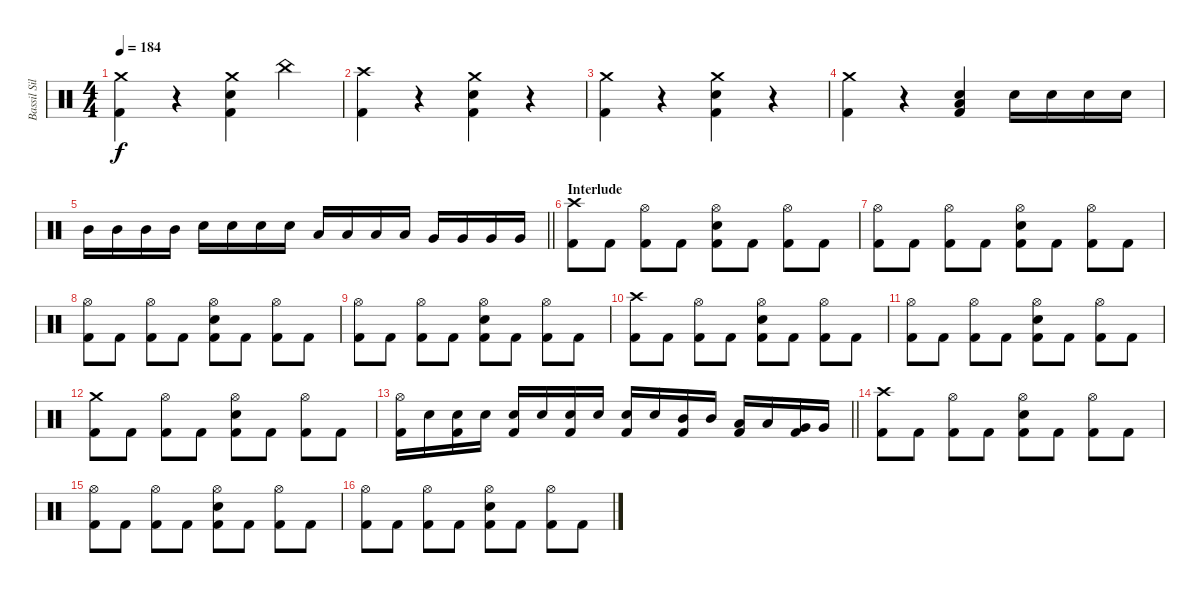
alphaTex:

\track ("Bassil Silver-Hajo" "Bassil Sil") {instrument percussion}
\staff {score}
\articulation defaults
\ts (4 4)
\tempo 184
\clef neutral
\ks c
("Crash medium (hit)" "Kick (hit) 2").4{dy f} r.4 ("Crash medium (hit)" "Snare (hit) 2" "Kick (hit) 2").4 "China (hit)".4 |
("Crash high (hit)" "Kick (hit) 2").4 r.4 ("Crash medium (hit)" "Snare (hit) 2" "Kick (hit) 2").4 r.4 |
("Crash medium (hit)" "Kick (hit) 2").4 r.4 ("Crash medium (hit)" "Snare (hit) 2" "Kick (hit) 2").4 r.4 |
("Crash medium (hit)" "Kick (hit) 2").4 r.4 ("Low Tom (hit)" "Snare (hit) 2" "Kick (hit) 2").4 "Snare (hit) 2".16 "Snare (hit) 2".16 "Snare (hit) 2".16 "Snare (hit) 2".16 |
\barLineRight lightlight "Mid Tom (hit)".16 "Mid Tom (hit)".16 "Mid Tom (hit)".16 "Mid Tom (hit)".16 "Snare (hit) 2".16 "Snare (hit) 2".16 "Snare (hit) 2".16 "Snare (hit) 2".16 "Low Tom (hit)".16 "Low Tom (hit)".16 "Low Tom (hit)".16 "Low Tom (hit)".16 "Very Low Tom (hit)".16 "Very Low Tom (hit)".16 "Very Low Tom (hit)".16 "Very Low Tom (hit)".16
|
\section ("" "Interlude")
("Crash high (hit)" "Kick (hit) 2").8 "Kick (hit) 2".8 ("Hi-Hat (open)" "Kick (hit) 2").8 "Kick (hit) 2".8 ("Hi-Hat (open)" "Snare (hit) 2" "Kick (hit) 2").8 "Kick (hit) 2".8 ("Hi-Hat (open)" "Kick (hit) 2").8 "Kick (hit) 2".8 |
("Hi-Hat (open)" "Kick (hit) 2").8 "Kick (hit) 2".8 ("Hi-Hat (open)" "Kick (hit) 2").8 "Kick (hit) 2".8 ("Hi-Hat (open)" "Snare (hit) 2" "Kick (hit) 2").8 "Kick (hit) 2".8 ("Hi-Hat (open)" "Kick (hit) 2").8 "Kick (hit) 2".8 |
("Hi-Hat (open)" "Kick (hit) 2").8 "Kick (hit) 2".8 ("Hi-Hat (open)" "Kick (hit) 2").8 "Kick (hit) 2".8 ("Hi-Hat (open)" "Snare (hit) 2" "Kick (hit) 2").8 "Kick (hit) 2".8 ("Hi-Hat (open)" "Kick (hit) 2").8 "Kick (hit) 2".8 |
("Hi-Hat (open)" "Kick (hit) 2").8 "Kick (hit) 2".8 ("Hi-Hat (open)" "Kick (hit) 2").8 "Kick (hit) 2".8 ("Hi-Hat (open)" "Snare (hit) 2" "Kick (hit) 2").8 "Kick (hit) 2".8 ("Hi-Hat (open)" "Kick (hit) 2").8 "Kick (hit) 2".8 |
("Crash high (hit)" "Kick (hit) 2").8 "Kick (hit) 2".8 ("Hi-Hat (open)" "Kick (hit) 2").8 "Kick (hit) 2".8 ("Hi-Hat (open)" "Snare (hit) 2" "Kick (hit) 2").8 "Kick (hit) 2".8 ("Hi-Hat (open)" "Kick (hit) 2").8 "Kick (hit) 2".8 |
("Hi-Hat (open)" "Kick (hit) 2").8 "Kick (hit) 2".8 ("Hi-Hat (open)" "Kick (hit) 2").8 "Kick (hit) 2".8 ("Hi-Hat (open)" "Snare (hit) 2" "Kick (hit) 2").8 "Kick (hit) 2".8 ("Hi-Hat (open)" "Kick (hit) 2").8 "Kick (hit) 2".8 |
("Crash medium (hit)" "Kick (hit) 2").8 "Kick (hit) 2".8 ("Hi-Hat (open)" "Kick (hit) 2").8 "Kick (hit) 2".8 ("Hi-Hat (open)" "Snare (hit) 2" "Kick (hit) 2").8 "Kick (hit) 2".8 ("Hi-Hat (open)" "Kick (hit) 2").8 "Kick (hit) 2".8 |
\barLineRight lightlight
("Hi-Hat (open)" "Kick (hit) 2").16 "Snare (hit) 2".16 ("Snare (hit) 2" "Kick (hit) 2").16 "Snare (hit) 2".16 ("Snare (hit) 2" "Kick (hit) 2").16 "Snare (hit) 2".16 ("Snare (hit) 2" "Kick (hit) 2").16 "Snare (hit) 2".16 ("Snare (hit) 2" "Kick (hit) 2").16 "Snare (hit) 2".16 ("Mid Tom (hit)" "Kick (hit) 2").16 "Mid Tom (hit)".16 ("Low Tom (hit)" "Kick (hit) 2").16 "Low Tom (hit)".16 ("Very Low Tom (hit)" "Kick (hit) 2").16 "Very Low Tom (hit)".16 |
("Crash high (hit)" "Kick (hit) 2").8 "Kick (hit) 2".8 ("Hi-Hat (open)" "Kick (hit) 2").8 "Kick (hit) 2".8 ("Hi-Hat (open)" "Snare (hit) 2" "Kick (hit) 2").8 "Kick (hit) 2".8 ("Hi-Hat (open)" "Kick (hit) 2").8 "Kick (hit) 2".8 |
("Hi-Hat (open)" "Kick (hit) 2").8 "Kick (hit) 2".8 ("Hi-Hat (open)" "Kick (hit) 2").8 "Kick (hit) 2".8 ("Hi-Hat (open)" "Snare (hit) 2" "Kick (hit) 2").8 "Kick (hit) 2".8 ("Hi-Hat (open)" "Kick (hit) 2").8 "Kick (hit) 2".8 |
("Hi-Hat (open)" "Kick (hit) 2").8 "Kick (hit) 2".8 ("Hi-Hat (open)" "Kick (hit) 2").8 "Kick (hit) 2".8 ("Hi-Hat (open)" "Snare (hit) 2" "Kick (hit) 2").8 "Kick (hit) 2".8 ("Hi-Hat (open)" "Kick (hit) 2").8 "Kick (hit) 2".8
